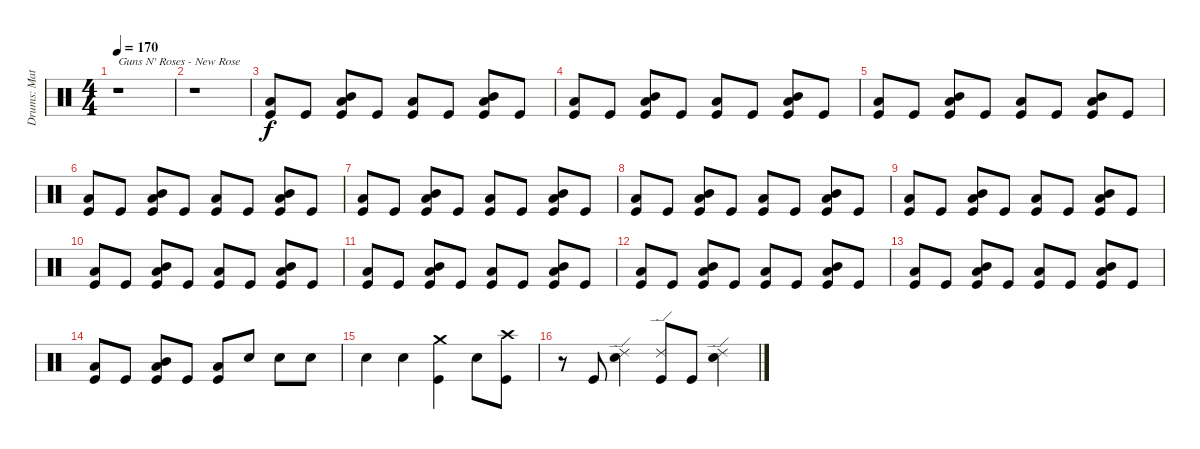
\track ("Drums: Matt" "Drums: Mat") {instrument percussion}
\staff {score}
\articulation defaults
\ts (4 4)
\tempo 170
\clef neutral
\ks c
r.1{txt "Guns N' Roses - New Rose" dy f} |
r.1 |
("Low Floor Tom (hit)" "Kick (hit)").8 "Kick (hit)".8 ("Low Floor Tom (hit)" "Mid Tom (hit)" "Kick (hit)").8 "Kick (hit)".8 ("Low Floor Tom (hit)" "Kick (hit)").8 "Kick (hit)".8 ("Low Floor Tom (hit)" "Kick (hit)" "Mid Tom (hit)").8 "Kick (hit)".8 |
("Low Floor Tom (hit)" "Kick (hit)").8 "Kick (hit)".8 ("Low Floor Tom (hit)" "Mid Tom (hit)" "Kick (hit)").8 "Kick (hit)".8 ("Low Floor Tom (hit)" "Kick (hit)").8 "Kick (hit)".8 ("Mid Tom (hit)" "Low Floor Tom (hit)" "Kick (hit)").8 "Kick (hit)".8 |
("Low Floor Tom (hit)" "Kick (hit)").8 "Kick (hit)".8 ("Low Floor Tom (hit)" "Mid Tom (hit)" "Kick (hit)").8 "Kick (hit)".8 ("Low Floor Tom (hit)" "Kick (hit)").8 "Kick (hit)".8 ("Mid Tom (hit)" "Low Floor Tom (hit)" "Kick (hit)").8 "Kick (hit)".8 |
("Low Floor Tom (hit)" "Kick (hit)").8 "Kick (hit)".8 ("Low Floor Tom (hit)" "Mid Tom (hit)" "Kick (hit)").8 "Kick (hit)".8 ("Low Floor Tom (hit)" "Kick (hit)").8 "Kick (hit)".8 ("Mid Tom (hit)" "Low Floor Tom (hit)" "Kick (hit)").8 "Kick (hit)".8 |
("Kick (hit)" "Low Floor Tom (hit)").8 "Kick (hit)".8 ("Low Floor Tom (hit)" "Kick (hit)" "Mid Tom (hit)").8 "Kick (hit)".8 ("Kick (hit)" "Low Floor Tom (hit)").8 "Kick (hit)".8 ("Kick (hit)" "Low Floor Tom (hit)" "Mid Tom (hit)").8 "Kick (hit)".8 |
("Kick (hit)" "Low Floor Tom (hit)").8 "Kick (hit)".8 ("Low Floor Tom (hit)" "Mid Tom (hit)" "Kick (hit)").8 "Kick (hit)".8 ("Kick (hit)" "Low Floor Tom (hit)").8 "Kick (hit)".8 ("Kick (hit)" "Low Floor Tom (hit)" "Mid Tom (hit)").8 "Kick (hit)".8 |
("Kick (hit)" "Low Floor Tom (hit)").8 "Kick (hit)".8 ("Mid Tom (hit)" "Kick (hit)" "Low Floor Tom (hit)").8 "Kick (hit)".8 ("Low Floor Tom (hit)" "Kick (hit)").8 "Kick (hit)".8 ("Kick (hit)" "Mid Tom (hit)" "Low Floor Tom (hit)").8 "Kick (hit)".8 |
("Low Floor Tom (hit)" "Kick (hit)").8 "Kick (hit)".8 ("Kick (hit)" "Mid Tom (hit)" "Low Floor Tom (hit)").8 "Kick (hit)".8 ("Low Floor Tom (hit)" "Kick (hit)").8 "Kick (hit)".8 ("Mid Tom (hit)" "Kick (hit)" "Low Floor Tom (hit)").8 "Kick (hit)".8 |
("Kick (hit)" "Low Floor Tom (hit)").8 "Kick (hit)".8 ("Low Floor Tom (hit)" "Mid Tom (hit)" "Kick (hit)").8 "Kick (hit)".8 ("Kick (hit)" "Low Floor Tom (hit)").8 "Kick (hit)".8 ("Low Floor Tom (hit)" "Kick (hit)" "Mid Tom (hit)").8 "Kick (hit)".8 |
("Kick (hit)" "Low Floor Tom (hit)").8 "Kick (hit)".8 ("Low Floor Tom (hit)" "Mid Tom (hit)" "Kick (hit)").8 "Kick (hit)".8 ("Low Floor Tom (hit)" "Kick (hit)").8 "Kick (hit)".8 ("Mid Tom (hit)" "Kick (hit)" "Low Floor Tom (hit)").8 "Kick (hit)".8 |
("Low Floor Tom (hit)" "Kick (hit)").8 "Kick (hit)".8 ("Low Floor Tom (hit)" "Kick (hit)" "Mid Tom (hit)").8 "Kick (hit)".8 ("Kick (hit)" "Low Floor Tom (hit)").8 "Kick (hit)".8 ("Mid Tom (hit)" "Kick (hit)" "Low Floor Tom (hit)").8 "Kick (hit)".8 |
("Low Floor Tom (hit)" "Kick (hit)").8 "Kick (hit)".8 ("Low Floor Tom (hit)" "Kick (hit)" "Mid Tom (hit)").8 "Kick (hit)".8 ("Kick (hit)" "Low Floor Tom (hit)").8 "Snare (hit) 2".8 "Snare (hit) 2".8 "Snare (hit) 2".8 |
"Snare (hit) 2".4 "Snare (hit) 2".4 ("Crash medium (hit)" "Kick (hit)").4 "Snare (hit) 2".8 ("Crash high (hit)" "Kick (hit)").8 |
r.8 "Kick (hit)".8 ("Snare (hit) 2" "Ride (edge) 2").4 ("Kick (hit)" "Ride (edge) 2").8 "Kick (hit)".8 ("Snare (hit) 2" "Ride (edge) 2").4
